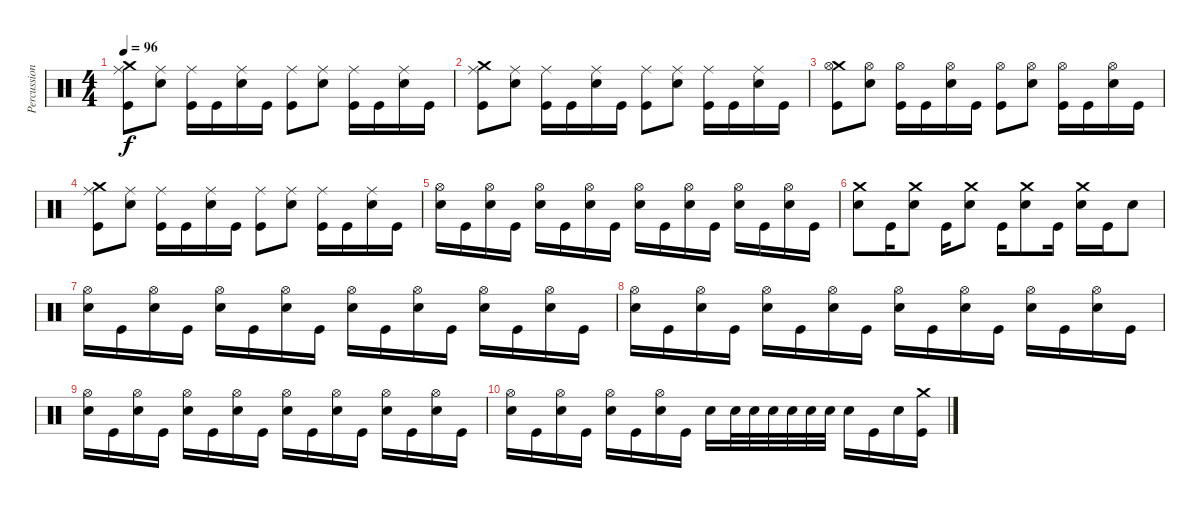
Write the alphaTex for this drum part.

\track ("Percussion" "Percussion") {instrument percussion}
\staff {score}
\articulation defaults
\ts (4 4)
\tempo 96
\clef neutral
\ks c
("Crash medium (hit)" "Ride (middle)" "Kick (hit)").8{dy f} ("Ride (middle)" "Electric Snare (hit)").8 ("Ride (middle)" "Kick (hit)").16 "Kick (hit)".16 ("Ride (middle)" "Electric Snare (hit)").16 "Kick (hit)".16 ("Ride (middle)" "Kick (hit)").8 ("Ride (middle)" "Electric Snare (hit)").8 ("Ride (middle)" "Kick (hit)").16 "Kick (hit)".16 ("Ride (middle)" "Electric Snare (hit)").16 "Kick (hit)".16 |
("Crash medium (hit)" "Ride (middle)" "Kick (hit)").8 ("Ride (middle)" "Electric Snare (hit)").8 ("Ride (middle)" "Kick (hit)").16 "Kick (hit)".16 ("Ride (middle)" "Electric Snare (hit)").16 "Kick (hit)".16 ("Ride (middle)" "Kick (hit)").8 ("Ride (middle)" "Electric Snare (hit)").8 ("Ride (middle)" "Kick (hit)").16 "Kick (hit)".16 ("Ride (middle)" "Electric Snare (hit)").16 "Kick (hit)".16 |
("Crash medium (hit)" "Hi-Hat (open)" "Kick (hit)").8 ("Hi-Hat (open)" "Electric Snare (hit)").8 ("Hi-Hat (open)" "Kick (hit)").16 "Kick (hit)".16 ("Hi-Hat (open)" "Electric Snare (hit)").16 "Kick (hit)".16 ("Hi-Hat (open)" "Kick (hit)").8 ("Hi-Hat (open)" "Electric Snare (hit)").8 ("Hi-Hat (open)" "Kick (hit)").16 "Kick (hit)".16 ("Hi-Hat (open)" "Electric Snare (hit)").16 "Kick (hit)".16 |
("Crash medium (hit)" "Ride (middle)" "Kick (hit)").8 ("Ride (middle)" "Electric Snare (hit)").8 ("Ride (middle)" "Kick (hit)").16 "Kick (hit)".16 ("Ride (middle)" "Electric Snare (hit)").16 "Kick (hit)".16 ("Ride (middle)" "Kick (hit)").8 ("Ride (middle)" "Electric Snare (hit)").8 ("Ride (middle)" "Kick (hit)").16 "Kick (hit)".16 ("Ride (middle)" "Electric Snare (hit)").16 "Kick (hit)".16 |
("Hi-Hat (open)" "Electric Snare (hit)").16 "Kick (hit)".16 ("Hi-Hat (open)" "Electric Snare (hit)").16 "Kick (hit)".16 ("Hi-Hat (open)" "Electric Snare (hit)").16 "Kick (hit)".16 ("Hi-Hat (open)" "Electric Snare (hit)").16 "Kick (hit)".16 ("Hi-Hat (open)" "Electric Snare (hit)").16 "Kick (hit)".16 ("Hi-Hat (open)" "Electric Snare (hit)").16 "Kick (hit)".16 ("Hi-Hat (open)" "Electric Snare (hit)").16 "Kick (hit)".16 ("Hi-Hat (open)" "Electric Snare (hit)").16 "Kick (hit)".16 |
("Crash medium (hit)" "Electric Snare (hit)").8 "Kick (hit)".16 ("Crash medium (hit)" "Electric Snare (hit)").8 "Kick (hit)".16 ("Crash medium (hit)" "Electric Snare (hit)").8 "Kick (hit)".16 ("Crash medium (hit)" "Electric Snare (hit)").8 "Kick (hit)".16 ("Crash medium (hit)" "Electric Snare (hit)").16 "Kick (hit)".16 "Electric Snare (hit)".8 |
("Hi-Hat (open)" "Electric Snare (hit)").16 "Kick (hit)".16 ("Hi-Hat (open)" "Electric Snare (hit)").16 "Kick (hit)".16 ("Hi-Hat (open)" "Electric Snare (hit)").16 "Kick (hit)".16 ("Hi-Hat (open)" "Electric Snare (hit)").16 "Kick (hit)".16 ("Hi-Hat (open)" "Electric Snare (hit)").16 "Kick (hit)".16 ("Hi-Hat (open)" "Electric Snare (hit)").16 "Kick (hit)".16 ("Hi-Hat (open)" "Electric Snare (hit)").16 "Kick (hit)".16 ("Hi-Hat (open)" "Electric Snare (hit)").16 "Kick (hit)".16 |
("Hi-Hat (open)" "Electric Snare (hit)").16 "Kick (hit)".16 ("Hi-Hat (open)" "Electric Snare (hit)").16 "Kick (hit)".16 ("Hi-Hat (open)" "Electric Snare (hit)").16 "Kick (hit)".16 ("Hi-Hat (open)" "Electric Snare (hit)").16 "Kick (hit)".16 ("Hi-Hat (open)" "Electric Snare (hit)").16 "Kick (hit)".16 ("Hi-Hat (open)" "Electric Snare (hit)").16 "Kick (hit)".16 ("Hi-Hat (open)" "Electric Snare (hit)").16 "Kick (hit)".16 ("Hi-Hat (open)" "Electric Snare (hit)").16 "Kick (hit)".16 |
("Hi-Hat (open)" "Electric Snare (hit)").16 "Kick (hit)".16 ("Hi-Hat (open)" "Electric Snare (hit)").16 "Kick (hit)".16 ("Hi-Hat (open)" "Electric Snare (hit)").16 "Kick (hit)".16 ("Hi-Hat (open)" "Electric Snare (hit)").16 "Kick (hit)".16 ("Hi-Hat (open)" "Electric Snare (hit)").16 "Kick (hit)".16 ("Hi-Hat (open)" "Electric Snare (hit)").16 "Kick (hit)".16 ("Hi-Hat (open)" "Electric Snare (hit)").16 "Kick (hit)".16 ("Hi-Hat (open)" "Electric Snare (hit)").16 "Kick (hit)".16 |
("Hi-Hat (open)" "Electric Snare (hit)").16 "Kick (hit)".16 ("Hi-Hat (open)" "Electric Snare (hit)").16 "Kick (hit)".16 ("Hi-Hat (open)" "Electric Snare (hit)").16 "Kick (hit)".16 ("Hi-Hat (open)" "Electric Snare (hit)").16 "Kick (hit)".16 "Electric Snare (hit)".16 "Electric Snare (hit)".32 "Electric Snare (hit)".32 "Electric Snare (hit)".32 "Electric Snare (hit)".32 "Electric Snare (hit)".32 "Electric Snare (hit)".32 "Electric Snare (hit)".16 "Kick (hit)".16 "Electric Snare (hit)".16 ("Crash medium (hit)" "Kick (hit)").16
